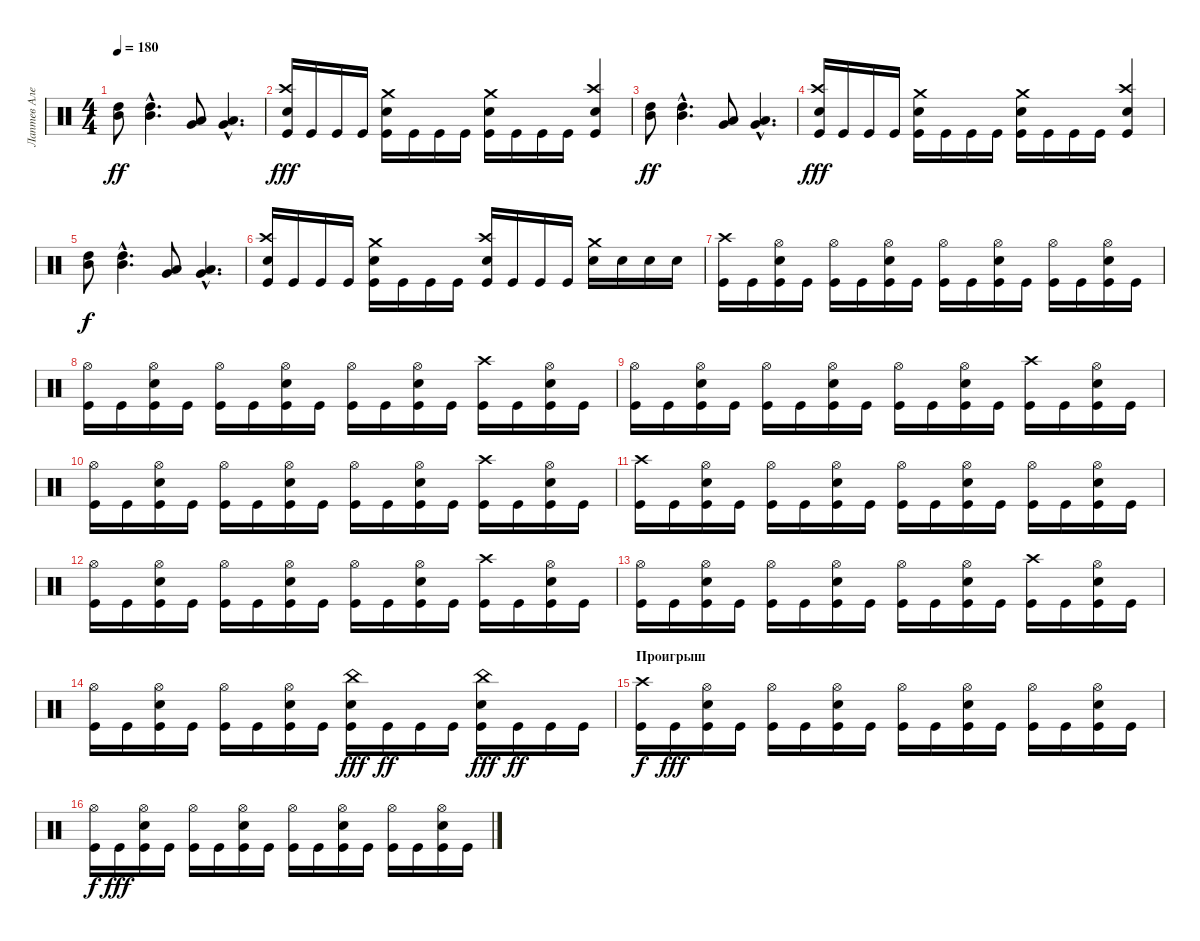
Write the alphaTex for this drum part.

\track ("Лаптев Алексей" "Лаптев Але") {instrument percussion}
\staff {score}
\articulation defaults
\ts (4 4)
\tempo 180
\clef neutral
\ks c
("Mid Tom (hit)" "High Tom (hit)").8{dy ff} ("Mid Tom (hit)"{hac} "High Tom (hit)"{hac}).4{d} ("Very Low Tom (hit)" "Low Tom (hit)").8 ("Very Low Tom (hit)"{hac} "Low Tom (hit)"{hac}).4{d} |
("Snare (hit) 2" "Crash high (hit)" "Kick (hit)").16{dy fff} "Kick (hit)".16 "Kick (hit)".16 "Kick (hit)".16 ("Crash medium (hit)" "Snare (hit) 2" "Kick (hit)").16 "Kick (hit)".16 "Kick (hit)".16 "Kick (hit)".16 ("Snare (hit) 2" "Crash medium (hit)" "Kick (hit)").16 "Kick (hit)".16 "Kick (hit)".16 "Kick (hit)".16 ("Snare (hit) 2" "Crash high (hit)" "Kick (hit)").4 |
("Mid Tom (hit)" "High Tom (hit)").8{dy ff} ("Mid Tom (hit)"{hac} "High Tom (hit)"{hac}).4{d} ("Very Low Tom (hit)" "Low Tom (hit)").8 ("Very Low Tom (hit)"{hac} "Low Tom (hit)"{hac}).4{d} |
("Snare (hit) 2" "Crash high (hit)" "Kick (hit)").16{dy fff} "Kick (hit)".16 "Kick (hit)".16 "Kick (hit)".16 ("Snare (hit) 2" "Crash medium (hit)" "Kick (hit)").16 "Kick (hit)".16 "Kick (hit)".16 "Kick (hit)".16 ("Snare (hit) 2" "Crash medium (hit)" "Kick (hit)").16 "Kick (hit)".16 "Kick (hit)".16 "Kick (hit)".16 ("Snare (hit) 2" "Crash high (hit)" "Kick (hit)").4 |
("Mid Tom (hit)" "High Tom (hit)").8{dy f} ("Mid Tom (hit)"{hac} "High Tom (hit)"{hac}).4{d} ("Very Low Tom (hit)" "Low Tom (hit)").8 ("Very Low Tom (hit)"{hac} "Low Tom (hit)"{hac}).4{d} |
("Kick (hit)" "Crash high (hit)" "Snare (hit) 2").16 "Kick (hit)".16 "Kick (hit)".16 "Kick (hit)".16 ("Crash medium (hit)" "Snare (hit) 2" "Kick (hit)").16 "Kick (hit)".16 "Kick (hit)".16 "Kick (hit)".16 ("Snare (hit) 2" "Kick (hit)" "Crash high (hit)").16 "Kick (hit)".16 "Kick (hit)".16 "Kick (hit)".16 ("Crash medium (hit)" "Snare (hit) 2").16 "Snare (hit) 2".16 "Snare (hit) 2".16 "Snare (hit) 2".16 |
("Crash high (hit)" "Kick (hit)").16 "Kick (hit)".16 ("Hi-Hat (open)" "Snare (hit) 2" "Kick (hit)").16 "Kick (hit)".16 ("Kick (hit)" "Hi-Hat (open)").16 "Kick (hit)".16 ("Snare (hit) 2" "Kick (hit)" "Hi-Hat (open)").16 "Kick (hit)".16 ("Hi-Hat (open)" "Kick (hit)").16 "Kick (hit)".16 ("Hi-Hat (open)" "Snare (hit) 2" "Kick (hit)").16 "Kick (hit)".16 ("Hi-Hat (open)" "Kick (hit)").16 "Kick (hit)".16 ("Hi-Hat (open)" "Snare (hit) 2" "Kick (hit)").16 "Kick (hit)".16 |
("Hi-Hat (open)" "Kick (hit)").16 "Kick (hit)".16 ("Hi-Hat (open)" "Snare (hit) 2" "Kick (hit)").16 "Kick (hit)".16 ("Kick (hit)" "Hi-Hat (open)").16 "Kick (hit)".16 ("Snare (hit) 2" "Kick (hit)" "Hi-Hat (open)").16 "Kick (hit)".16 ("Hi-Hat (open)" "Kick (hit)").16 "Kick (hit)".16 ("Hi-Hat (open)" "Snare (hit) 2" "Kick (hit)").16 "Kick (hit)".16 ("Crash high (hit)" "Kick (hit)").16 "Kick (hit)".16 ("Hi-Hat (open)" "Snare (hit) 2" "Kick (hit)").16 "Kick (hit)".16 |
("Hi-Hat (open)" "Kick (hit)").16 "Kick (hit)".16 ("Hi-Hat (open)" "Snare (hit) 2" "Kick (hit)").16 "Kick (hit)".16 ("Kick (hit)" "Hi-Hat (open)").16 "Kick (hit)".16 ("Snare (hit) 2" "Kick (hit)" "Hi-Hat (open)").16 "Kick (hit)".16 ("Hi-Hat (open)" "Kick (hit)").16 "Kick (hit)".16 ("Hi-Hat (open)" "Snare (hit) 2" "Kick (hit)").16 "Kick (hit)".16 ("Crash high (hit)" "Kick (hit)").16 "Kick (hit)".16 ("Hi-Hat (open)" "Snare (hit) 2" "Kick (hit)").16 "Kick (hit)".16 |
("Hi-Hat (open)" "Kick (hit)").16 "Kick (hit)".16 ("Hi-Hat (open)" "Snare (hit) 2" "Kick (hit)").16 "Kick (hit)".16 ("Kick (hit)" "Hi-Hat (open)").16 "Kick (hit)".16 ("Snare (hit) 2" "Kick (hit)" "Hi-Hat (open)").16 "Kick (hit)".16 ("Hi-Hat (open)" "Kick (hit)").16 "Kick (hit)".16 ("Hi-Hat (open)" "Snare (hit) 2" "Kick (hit)").16 "Kick (hit)".16 ("Crash high (hit)" "Kick (hit)").16 "Kick (hit)".16 ("Hi-Hat (open)" "Snare (hit) 2" "Kick (hit)").16 "Kick (hit)".16 |
("Crash high (hit)" "Kick (hit)").16 "Kick (hit)".16 ("Hi-Hat (open)" "Snare (hit) 2" "Kick (hit)").16 "Kick (hit)".16 ("Kick (hit)" "Hi-Hat (open)").16 "Kick (hit)".16 ("Snare (hit) 2" "Kick (hit)" "Hi-Hat (open)").16 "Kick (hit)".16 ("Hi-Hat (open)" "Kick (hit)").16 "Kick (hit)".16 ("Hi-Hat (open)" "Snare (hit) 2" "Kick (hit)").16 "Kick (hit)".16 ("Hi-Hat (open)" "Kick (hit)").16 "Kick (hit)".16 ("Hi-Hat (open)" "Snare (hit) 2" "Kick (hit)").16 "Kick (hit)".16 |
("Hi-Hat (open)" "Kick (hit)").16 "Kick (hit)".16 ("Hi-Hat (open)" "Snare (hit) 2" "Kick (hit)").16 "Kick (hit)".16 ("Kick (hit)" "Hi-Hat (open)").16 "Kick (hit)".16 ("Snare (hit) 2" "Kick (hit)" "Hi-Hat (open)").16 "Kick (hit)".16 ("Hi-Hat (open)" "Kick (hit)").16 "Kick (hit)".16 ("Hi-Hat (open)" "Snare (hit) 2" "Kick (hit)").16 "Kick (hit)".16 ("Crash high (hit)" "Kick (hit)").16 "Kick (hit)".16 ("Hi-Hat (open)" "Snare (hit) 2" "Kick (hit)").16 "Kick (hit)".16 |
("Hi-Hat (open)" "Kick (hit)").16 "Kick (hit)".16 ("Hi-Hat (open)" "Snare (hit) 2" "Kick (hit)").16 "Kick (hit)".16 ("Kick (hit)" "Hi-Hat (open)").16 "Kick (hit)".16 ("Snare (hit) 2" "Kick (hit)" "Hi-Hat (open)").16 "Kick (hit)".16 ("Hi-Hat (open)" "Kick (hit)").16 "Kick (hit)".16 ("Hi-Hat (open)" "Snare (hit) 2" "Kick (hit)").16 "Kick (hit)".16 ("Crash high (hit)" "Kick (hit)").16 "Kick (hit)".16 ("Hi-Hat (open)" "Snare (hit) 2" "Kick (hit)").16 "Kick (hit)".16 |
("Hi-Hat (open)" "Kick (hit)").16 "Kick (hit)".16 ("Hi-Hat (open)" "Snare (hit) 2" "Kick (hit)").16 "Kick (hit)".16 ("Kick (hit)" "Hi-Hat (open)").16 "Kick (hit)".16 ("Snare (hit) 2" "Kick (hit)" "Hi-Hat (open)").16 "Kick (hit)".16 ("Kick (hit)" "Snare (hit) 2" "China (hit)").16{dy fff} "Kick (hit)".16{dy ff} "Kick (hit)".16 "Kick (hit)".16 ("Kick (hit)" "Snare (hit) 2" "China (hit)").16{dy fff} "Kick (hit)".16{dy ff} "Kick (hit)".16 "Kick (hit)".16 |
\section ("" "Проигрыш")
("Crash high (hit)" "Kick (hit)").16{dy f} "Kick (hit)".16{dy fff} ("Hi-Hat (open)" "Snare (hit) 2" "Kick (hit)").16 "Kick (hit)".16 ("Hi-Hat (open)" "Kick (hit)").16 "Kick (hit)".16 ("Snare (hit) 2" "Hi-Hat (open)" "Kick (hit)").16 "Kick (hit)".16 ("Hi-Hat (open)" "Kick (hit)").16 "Kick (hit)".16 ("Hi-Hat (open)" "Snare (hit) 2" "Kick (hit)").16 "Kick (hit)".16 ("Hi-Hat (open)" "Kick (hit)").16 "Kick (hit)".16 ("Hi-Hat (open)" "Snare (hit) 2" "Kick (hit)").16 "Kick (hit)".16 |
("Hi-Hat (open)" "Kick (hit)").16{dy f} "Kick (hit)".16{dy fff} ("Hi-Hat (open)" "Snare (hit) 2" "Kick (hit)").16 "Kick (hit)".16 ("Hi-Hat (open)" "Kick (hit)").16 "Kick (hit)".16 ("Snare (hit) 2" "Hi-Hat (open)" "Kick (hit)").16 "Kick (hit)".16 ("Hi-Hat (open)" "Kick (hit)").16 "Kick (hit)".16 ("Hi-Hat (open)" "Snare (hit) 2" "Kick (hit)").16 "Kick (hit)".16 ("Hi-Hat (open)" "Kick (hit)").16 "Kick (hit)".16 ("Hi-Hat (open)" "Snare (hit) 2" "Kick (hit)").16 "Kick (hit)".16
